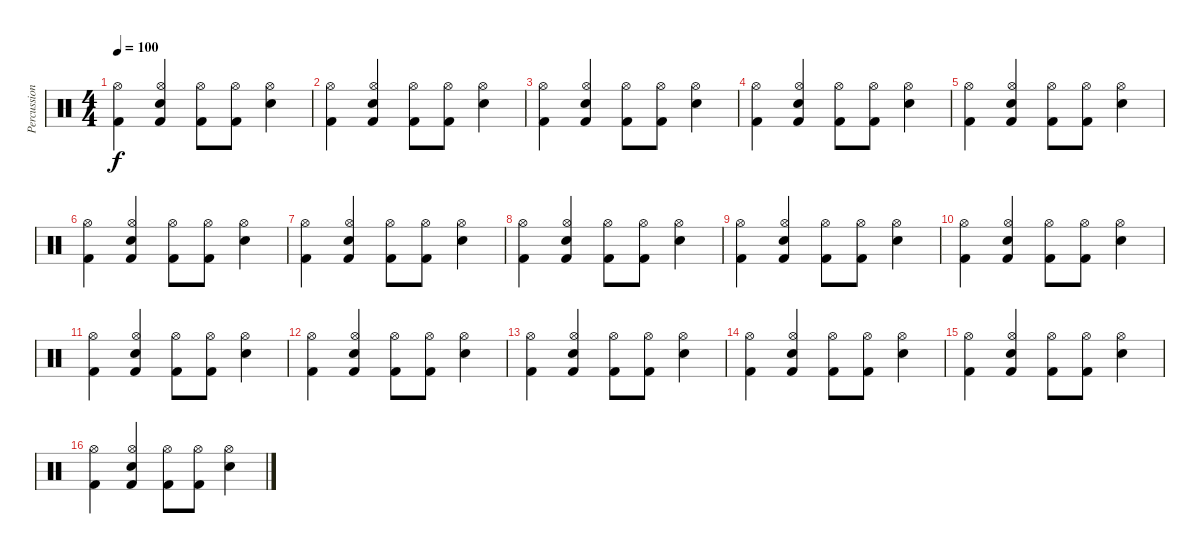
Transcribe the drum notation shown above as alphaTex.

\track ("Percussion" "Percussion") {instrument percussion}
\staff {score}
\articulation defaults
\ts (4 4)
\tempo 100
\clef neutral
\ks c
("Kick (hit) 2" "Hi-Hat (open)").4{dy f} ("Kick (hit) 2" "Snare (hit) 2" "Hi-Hat (open)").4 ("Kick (hit) 2" "Hi-Hat (open)").8 ("Kick (hit) 2" "Hi-Hat (open)").8 ("Snare (hit) 2" "Hi-Hat (open)").4 |
("Kick (hit) 2" "Hi-Hat (open)").4 ("Kick (hit) 2" "Snare (hit) 2" "Hi-Hat (open)").4 ("Kick (hit) 2" "Hi-Hat (open)").8 ("Kick (hit) 2" "Hi-Hat (open)").8 ("Snare (hit) 2" "Hi-Hat (open)").4 |
("Kick (hit) 2" "Hi-Hat (open)").4 ("Kick (hit) 2" "Snare (hit) 2" "Hi-Hat (open)").4 ("Kick (hit) 2" "Hi-Hat (open)").8 ("Kick (hit) 2" "Hi-Hat (open)").8 ("Snare (hit) 2" "Hi-Hat (open)").4 |
("Kick (hit) 2" "Hi-Hat (open)").4 ("Kick (hit) 2" "Snare (hit) 2" "Hi-Hat (open)").4 ("Kick (hit) 2" "Hi-Hat (open)").8 ("Kick (hit) 2" "Hi-Hat (open)").8 ("Snare (hit) 2" "Hi-Hat (open)").4 |
("Kick (hit) 2" "Hi-Hat (open)").4 ("Kick (hit) 2" "Snare (hit) 2" "Hi-Hat (open)").4 ("Kick (hit) 2" "Hi-Hat (open)").8 ("Kick (hit) 2" "Hi-Hat (open)").8 ("Snare (hit) 2" "Hi-Hat (open)").4 |
("Kick (hit) 2" "Hi-Hat (open)").4 ("Kick (hit) 2" "Snare (hit) 2" "Hi-Hat (open)").4 ("Kick (hit) 2" "Hi-Hat (open)").8 ("Kick (hit) 2" "Hi-Hat (open)").8 ("Snare (hit) 2" "Hi-Hat (open)").4 |
("Kick (hit) 2" "Hi-Hat (open)").4 ("Kick (hit) 2" "Snare (hit) 2" "Hi-Hat (open)").4 ("Kick (hit) 2" "Hi-Hat (open)").8 ("Kick (hit) 2" "Hi-Hat (open)").8 ("Snare (hit) 2" "Hi-Hat (open)").4 |
("Kick (hit) 2" "Hi-Hat (open)").4 ("Kick (hit) 2" "Snare (hit) 2" "Hi-Hat (open)").4 ("Kick (hit) 2" "Hi-Hat (open)").8 ("Kick (hit) 2" "Hi-Hat (open)").8 ("Snare (hit) 2" "Hi-Hat (open)").4 |
("Kick (hit) 2" "Hi-Hat (open)").4 ("Kick (hit) 2" "Snare (hit) 2" "Hi-Hat (open)").4 ("Kick (hit) 2" "Hi-Hat (open)").8 ("Kick (hit) 2" "Hi-Hat (open)").8 ("Snare (hit) 2" "Hi-Hat (open)").4 |
("Kick (hit) 2" "Hi-Hat (open)").4 ("Kick (hit) 2" "Snare (hit) 2" "Hi-Hat (open)").4 ("Kick (hit) 2" "Hi-Hat (open)").8 ("Kick (hit) 2" "Hi-Hat (open)").8 ("Snare (hit) 2" "Hi-Hat (open)").4 |
("Kick (hit) 2" "Hi-Hat (open)").4 ("Kick (hit) 2" "Snare (hit) 2" "Hi-Hat (open)").4 ("Kick (hit) 2" "Hi-Hat (open)").8 ("Kick (hit) 2" "Hi-Hat (open)").8 ("Snare (hit) 2" "Hi-Hat (open)").4 |
("Kick (hit) 2" "Hi-Hat (open)").4 ("Kick (hit) 2" "Snare (hit) 2" "Hi-Hat (open)").4 ("Kick (hit) 2" "Hi-Hat (open)").8 ("Kick (hit) 2" "Hi-Hat (open)").8 ("Snare (hit) 2" "Hi-Hat (open)").4 |
("Kick (hit) 2" "Hi-Hat (open)").4 ("Kick (hit) 2" "Snare (hit) 2" "Hi-Hat (open)").4 ("Kick (hit) 2" "Hi-Hat (open)").8 ("Kick (hit) 2" "Hi-Hat (open)").8 ("Snare (hit) 2" "Hi-Hat (open)").4 |
("Kick (hit) 2" "Hi-Hat (open)").4 ("Kick (hit) 2" "Snare (hit) 2" "Hi-Hat (open)").4 ("Kick (hit) 2" "Hi-Hat (open)").8 ("Kick (hit) 2" "Hi-Hat (open)").8 ("Snare (hit) 2" "Hi-Hat (open)").4 |
("Kick (hit) 2" "Hi-Hat (open)").4 ("Kick (hit) 2" "Snare (hit) 2" "Hi-Hat (open)").4 ("Kick (hit) 2" "Hi-Hat (open)").8 ("Kick (hit) 2" "Hi-Hat (open)").8 ("Snare (hit) 2" "Hi-Hat (open)").4 |
("Kick (hit) 2" "Hi-Hat (open)").4 ("Kick (hit) 2" "Snare (hit) 2" "Hi-Hat (open)").4 ("Kick (hit) 2" "Hi-Hat (open)").8 ("Kick (hit) 2" "Hi-Hat (open)").8 ("Snare (hit) 2" "Hi-Hat (open)").4
